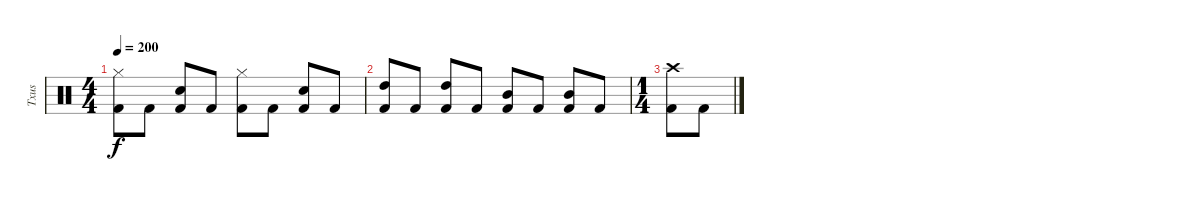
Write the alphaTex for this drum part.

\track ("Txus" "Txus") {instrument percussion}
\staff {score}
\articulation defaults
\ts (4 4)
\tempo 200
\clef neutral
\ks c
("Hi-Hat (closed)" "Kick (hit) 2").8{dy f} "Kick (hit) 2".8 ("Electric Snare (hit)" "Kick (hit) 2").8 "Kick (hit) 2".8 ("Hi-Hat (closed)" "Kick (hit) 2").8 "Kick (hit) 2".8 ("Electric Snare (hit)" "Kick (hit) 2").8 "Kick (hit) 2".8 |
("High Tom (hit)" "Kick (hit) 2").8 "Kick (hit) 2".8 ("High Tom (hit)" "Kick (hit) 2").8 "Kick (hit) 2".8 ("Mid Tom (hit)" "Kick (hit) 2").8 "Kick (hit) 2".8 ("Mid Tom (hit)" "Kick (hit) 2").8 "Kick (hit) 2".8 |
\ts (1 4)
("Crash high (hit)" "Kick (hit) 2").8 "Kick (hit) 2".8
